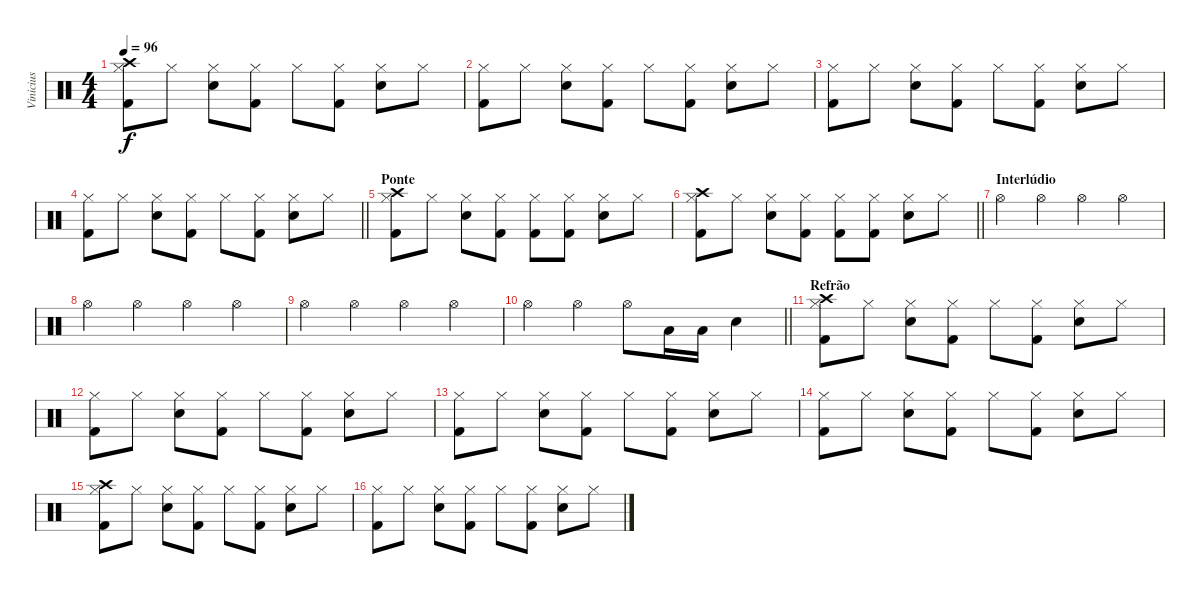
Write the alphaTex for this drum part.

\track ("Vinicius" "Vinicius") {instrument percussion}
\staff {score}
\articulation defaults
\ts (4 4)
\tempo 96
\clef neutral
\ks c
("Kick (hit) 2" "Crash high (hit)" "Hi-Hat (closed)").8{dy f} "Hi-Hat (closed)".8 ("Snare (hit) 2" "Hi-Hat (closed)").8 ("Kick (hit) 2" "Hi-Hat (closed)").8 "Hi-Hat (closed)".8 ("Kick (hit) 2" "Hi-Hat (closed)").8 ("Snare (hit) 2" "Hi-Hat (closed)").8 "Hi-Hat (closed)".8 |
("Kick (hit) 2" "Hi-Hat (closed)").8 "Hi-Hat (closed)".8 ("Snare (hit) 2" "Hi-Hat (closed)").8 ("Kick (hit) 2" "Hi-Hat (closed)").8 "Hi-Hat (closed)".8 ("Kick (hit) 2" "Hi-Hat (closed)").8 ("Snare (hit) 2" "Hi-Hat (closed)").8 "Hi-Hat (closed)".8 |
("Kick (hit) 2" "Hi-Hat (closed)").8 "Hi-Hat (closed)".8 ("Snare (hit) 2" "Hi-Hat (closed)").8 ("Kick (hit) 2" "Hi-Hat (closed)").8 "Hi-Hat (closed)".8 ("Kick (hit) 2" "Hi-Hat (closed)").8 ("Snare (hit) 2" "Hi-Hat (closed)").8 "Hi-Hat (closed)".8 |
\barLineRight lightlight
("Kick (hit) 2" "Hi-Hat (closed)").8 "Hi-Hat (closed)".8 ("Snare (hit) 2" "Hi-Hat (closed)").8 ("Kick (hit) 2" "Hi-Hat (closed)").8 "Hi-Hat (closed)".8 ("Kick (hit) 2" "Hi-Hat (closed)").8 ("Snare (hit) 2" "Hi-Hat (closed)").8 "Hi-Hat (closed)".8 |
\section ("" "Ponte")
("Kick (hit) 2" "Crash high (hit)" "Hi-Hat (closed)").8 "Hi-Hat (closed)".8 ("Snare (hit) 2" "Hi-Hat (closed)").8 ("Kick (hit) 2" "Hi-Hat (closed)").8 ("Kick (hit) 2" "Hi-Hat (closed)").8 ("Kick (hit) 2" "Hi-Hat (closed)").8 ("Snare (hit) 2" "Hi-Hat (closed)").8 "Hi-Hat (closed)".8 |
\barLineRight lightlight
("Kick (hit) 2" "Crash high (hit)" "Hi-Hat (closed)").8 "Hi-Hat (closed)".8 ("Snare (hit) 2" "Hi-Hat (closed)").8 ("Kick (hit) 2" "Hi-Hat (closed)").8 ("Kick (hit) 2" "Hi-Hat (closed)").8 ("Kick (hit) 2" "Hi-Hat (closed)").8 ("Snare (hit) 2" "Hi-Hat (closed)").8 "Hi-Hat (closed)".8 |
\section ("" "Interlúdio")
"Hi-Hat (open)".4 "Hi-Hat (open)".4 "Hi-Hat (open)".4 "Hi-Hat (open)".4 |
"Hi-Hat (open)".4 "Hi-Hat (open)".4 "Hi-Hat (open)".4 "Hi-Hat (open)".4 |
"Hi-Hat (open)".4 "Hi-Hat (open)".4 "Hi-Hat (open)".4 "Hi-Hat (open)".4 |
\barLineRight lightlight "Hi-Hat (open)".4 "Hi-Hat (open)".4 "Hi-Hat (open)".8 "Low Tom (hit)".16 "Low Tom (hit)".16 "Snare (hit) 2".4
|
\section ("" "Refrão")
("Kick (hit) 2" "Crash high (hit)" "Hi-Hat (closed)").8 "Hi-Hat (closed)".8 ("Snare (hit) 2" "Hi-Hat (closed)").8 ("Kick (hit) 2" "Hi-Hat (closed)").8 "Hi-Hat (closed)".8 ("Kick (hit) 2" "Hi-Hat (closed)").8 ("Snare (hit) 2" "Hi-Hat (closed)").8 "Hi-Hat (closed)".8 |
("Kick (hit) 2" "Hi-Hat (closed)").8 "Hi-Hat (closed)".8 ("Snare (hit) 2" "Hi-Hat (closed)").8 ("Kick (hit) 2" "Hi-Hat (closed)").8 "Hi-Hat (closed)".8 ("Kick (hit) 2" "Hi-Hat (closed)").8 ("Snare (hit) 2" "Hi-Hat (closed)").8 "Hi-Hat (closed)".8 |
("Kick (hit) 2" "Hi-Hat (closed)").8 "Hi-Hat (closed)".8 ("Snare (hit) 2" "Hi-Hat (closed)").8 ("Kick (hit) 2" "Hi-Hat (closed)").8 "Hi-Hat (closed)".8 ("Kick (hit) 2" "Hi-Hat (closed)").8 ("Snare (hit) 2" "Hi-Hat (closed)").8 "Hi-Hat (closed)".8 |
("Kick (hit) 2" "Hi-Hat (closed)").8 "Hi-Hat (closed)".8 ("Snare (hit) 2" "Hi-Hat (closed)").8 ("Kick (hit) 2" "Hi-Hat (closed)").8 "Hi-Hat (closed)".8 ("Kick (hit) 2" "Hi-Hat (closed)").8 ("Snare (hit) 2" "Hi-Hat (closed)").8 "Hi-Hat (closed)".8 |
("Kick (hit) 2" "Crash high (hit)" "Hi-Hat (closed)").8 "Hi-Hat (closed)".8 ("Snare (hit) 2" "Hi-Hat (closed)").8 ("Kick (hit) 2" "Hi-Hat (closed)").8 "Hi-Hat (closed)".8 ("Kick (hit) 2" "Hi-Hat (closed)").8 ("Snare (hit) 2" "Hi-Hat (closed)").8 "Hi-Hat (closed)".8 |
("Kick (hit) 2" "Hi-Hat (closed)").8 "Hi-Hat (closed)".8 ("Snare (hit) 2" "Hi-Hat (closed)").8 ("Kick (hit) 2" "Hi-Hat (closed)").8 "Hi-Hat (closed)".8 ("Kick (hit) 2" "Hi-Hat (closed)").8 ("Snare (hit) 2" "Hi-Hat (closed)").8 "Hi-Hat (closed)".8
